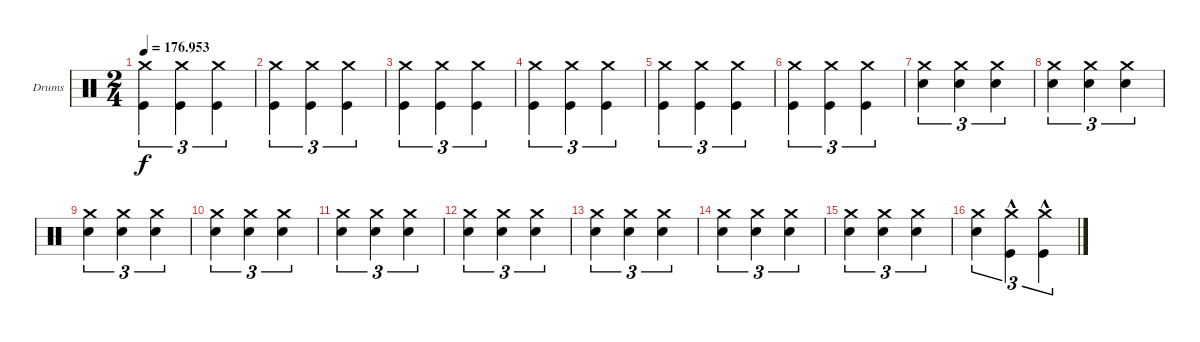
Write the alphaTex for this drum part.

\defaultSystemsLayout 4
\bracketExtendMode groupsimilarinstruments
\firstSystemTrackNameOrientation horizontal
\otherSystemsTrackNameOrientation horizontal
\track ("Drumkit" "Drums") {instrument percussion}
\staff {score}
\articulation defaults
\ts (2 4)
\tempo
176.953
\accidentals auto
\clef neutral
\ottava regular
\simile none
\ks c
("Kick (hit)" "Crash medium (hit)").4{tu (3 2) dy f} ("Kick (hit)" "Crash medium (hit)").4{tu (3 2)} ("Kick (hit)" "Crash medium (hit)").4{tu (3 2)} |
("Kick (hit)" "Crash medium (hit)").4{tu (3 2)} ("Kick (hit)" "Crash medium (hit)").4{tu (3 2)} ("Kick (hit)" "Crash medium (hit)").4{tu (3 2)} |
("Kick (hit)" "Crash medium (hit)").4{tu (3 2)} ("Kick (hit)" "Crash medium (hit)").4{tu (3 2)} ("Kick (hit)" "Crash medium (hit)").4{tu (3 2)} |
("Kick (hit)" "Crash medium (hit)").4{tu (3 2)} ("Kick (hit)" "Crash medium (hit)").4{tu (3 2)} ("Kick (hit)" "Crash medium (hit)").4{tu (3 2)} |
("Kick (hit)" "Crash medium (hit)").4{tu (3 2)} ("Kick (hit)" "Crash medium (hit)").4{tu (3 2)} ("Kick (hit)" "Crash medium (hit)").4{tu (3 2)} |
("Kick (hit)" "Crash medium (hit)").4{tu (3 2)} ("Kick (hit)" "Crash medium (hit)").4{tu (3 2)} ("Kick (hit)" "Crash medium (hit)").4{tu (3 2)} |
("Snare (hit) 2" "Crash medium (hit)").4{tu (3 2)} ("Snare (hit) 2" "Crash medium (hit)").4{tu (3 2)} ("Snare (hit) 2" "Crash medium (hit)").4{tu (3 2)} |
("Snare (hit) 2" "Crash medium (hit)").4{tu (3 2)} ("Snare (hit) 2" "Crash medium (hit)").4{tu (3 2)} ("Snare (hit) 2" "Crash medium (hit)").4{tu (3 2)} |
("Snare (hit) 2" "Crash medium (hit)").4{tu (3 2)} ("Snare (hit) 2" "Crash medium (hit)").4{tu (3 2)} ("Snare (hit) 2" "Crash medium (hit)").4{tu (3 2)} |
("Snare (hit) 2" "Crash medium (hit)").4{tu (3 2)} ("Snare (hit) 2" "Crash medium (hit)").4{tu (3 2)} ("Snare (hit) 2" "Crash medium (hit)").4{tu (3 2)} |
("Snare (hit) 2" "Crash medium (hit)").4{tu (3 2)} ("Snare (hit) 2" "Crash medium (hit)").4{tu (3 2)} ("Snare (hit) 2" "Crash medium (hit)").4{tu (3 2)} |
("Snare (hit) 2" "Crash medium (hit)").4{tu (3 2)} ("Snare (hit) 2" "Crash medium (hit)").4{tu (3 2)} ("Snare (hit) 2" "Crash medium (hit)").4{tu (3 2)} |
("Snare (hit) 2" "Crash medium (hit)").4{tu (3 2)} ("Snare (hit) 2" "Crash medium (hit)").4{tu (3 2)} ("Snare (hit) 2" "Crash medium (hit)").4{tu (3 2)} |
("Snare (hit) 2" "Crash medium (hit)").4{tu (3 2)} ("Snare (hit) 2" "Crash medium (hit)").4{tu (3 2)} ("Snare (hit) 2" "Crash medium (hit)").4{tu (3 2)} |
("Snare (hit) 2" "Crash medium (hit)").4{tu (3 2)} ("Snare (hit) 2" "Crash medium (hit)").4{tu (3 2)} ("Snare (hit) 2" "Crash medium (hit)").4{tu (3 2)} |
("Snare (hit) 2" "Crash medium (hit)").4{tu (3 2)} ("Crash medium (hit)" "Kick (hit)"{hac}).4{tu (3 2)} ("Crash medium (hit)" "Kick (hit)"{hac}).4{tu (3 2)}
